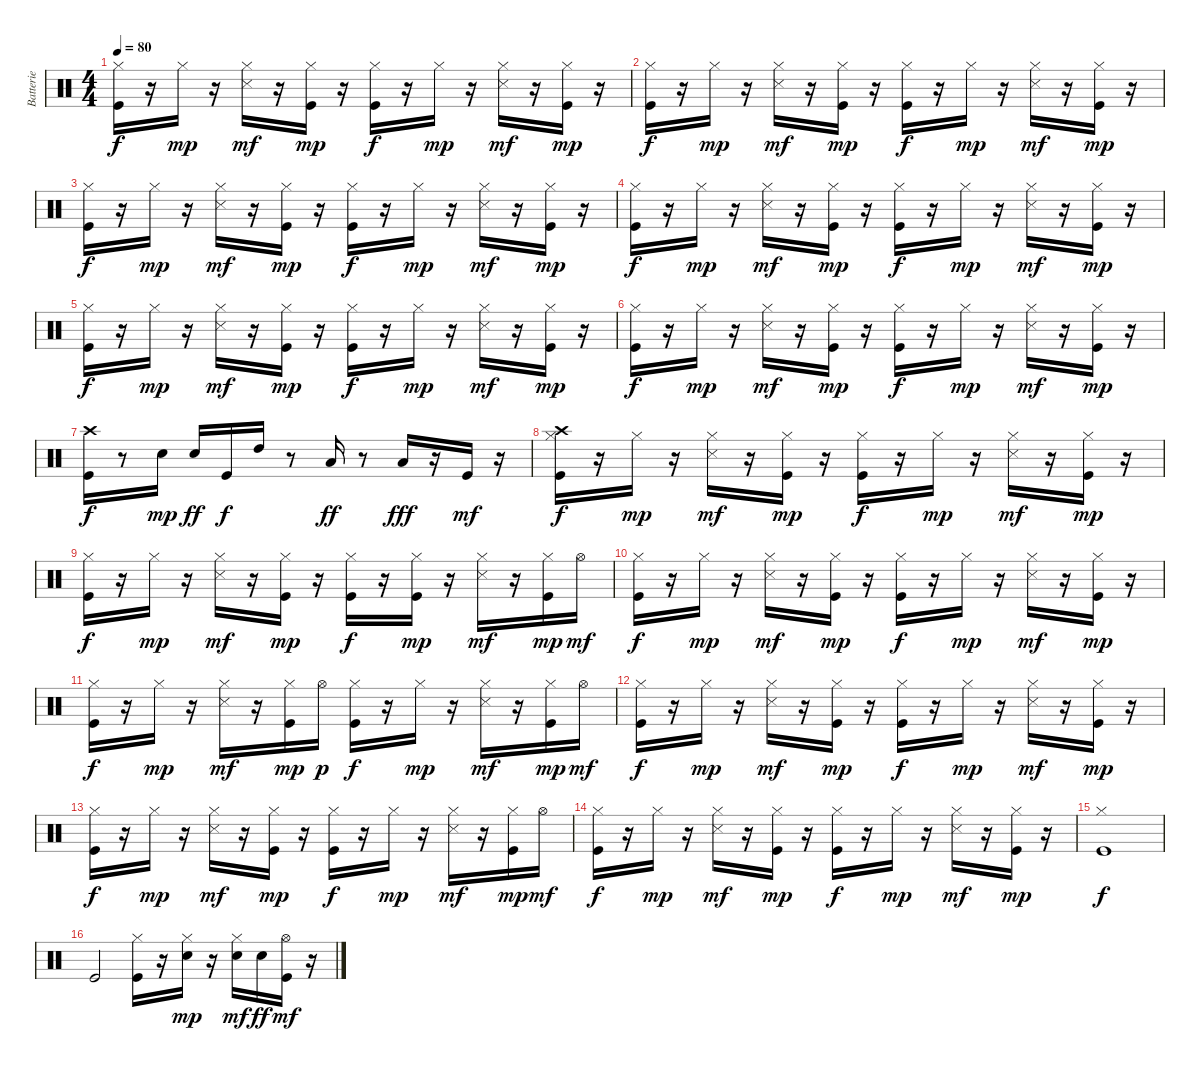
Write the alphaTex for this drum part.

\track ("Batterie" "Batterie") {instrument percussion}
\staff {score}
\articulation defaults
\ts (4 4)
\tempo 80
\clef neutral
\ks c
("Kick (hit)" "Hi-Hat (closed)").16{dy f} r.16 "Hi-Hat (closed)".16{dy mp} r.16 ("Hi-Hat (closed)" "Snare (side stick) 3").16{dy mf} r.16 ("Kick (hit)" "Hi-Hat (closed)").16{dy mp} r.16 ("Kick (hit)" "Hi-Hat (closed)").16{dy f} r.16 "Hi-Hat (closed)".16{dy mp} r.16 ("Hi-Hat (closed)" "Snare (side stick) 3").16{dy mf} r.16 ("Kick (hit)" "Hi-Hat (closed)").16{dy mp} r.16 |
("Kick (hit)" "Hi-Hat (closed)").16{dy f} r.16 "Hi-Hat (closed)".16{dy mp} r.16 ("Hi-Hat (closed)" "Snare (side stick) 3").16{dy mf} r.16 ("Kick (hit)" "Hi-Hat (closed)").16{dy mp} r.16 ("Kick (hit)" "Hi-Hat (closed)").16{dy f} r.16 "Hi-Hat (closed)".16{dy mp} r.16 ("Hi-Hat (closed)" "Snare (side stick) 3").16{dy mf} r.16 ("Kick (hit)" "Hi-Hat (closed)").16{dy mp} r.16 |
("Kick (hit)" "Hi-Hat (closed)").16{dy f} r.16 "Hi-Hat (closed)".16{dy mp} r.16 ("Hi-Hat (closed)" "Snare (side stick) 3").16{dy mf} r.16 ("Kick (hit)" "Hi-Hat (closed)").16{dy mp} r.16 ("Kick (hit)" "Hi-Hat (closed)").16{dy f} r.16 "Hi-Hat (closed)".16{dy mp} r.16 ("Hi-Hat (closed)" "Snare (side stick) 3").16{dy mf} r.16 ("Kick (hit)" "Hi-Hat (closed)").16{dy mp} r.16 |
("Kick (hit)" "Hi-Hat (closed)").16{dy f} r.16 "Hi-Hat (closed)".16{dy mp} r.16 ("Hi-Hat (closed)" "Snare (side stick) 3").16{dy mf} r.16 ("Kick (hit)" "Hi-Hat (closed)").16{dy mp} r.16 ("Kick (hit)" "Hi-Hat (closed)").16{dy f} r.16 "Hi-Hat (closed)".16{dy mp} r.16 ("Hi-Hat (closed)" "Snare (side stick) 3").16{dy mf} r.16 ("Kick (hit)" "Hi-Hat (closed)").16{dy mp} r.16 |
("Kick (hit)" "Hi-Hat (closed)").16{dy f} r.16 "Hi-Hat (closed)".16{dy mp} r.16 ("Hi-Hat (closed)" "Snare (side stick) 3").16{dy mf} r.16 ("Kick (hit)" "Hi-Hat (closed)").16{dy mp} r.16 ("Kick (hit)" "Hi-Hat (closed)").16{dy f} r.16 "Hi-Hat (closed)".16{dy mp} r.16 ("Hi-Hat (closed)" "Snare (side stick) 3").16{dy mf} r.16 ("Kick (hit)" "Hi-Hat (closed)").16{dy mp} r.16 |
("Kick (hit)" "Hi-Hat (closed)").16{dy f} r.16 "Hi-Hat (closed)".16{dy mp} r.16 ("Hi-Hat (closed)" "Snare (side stick) 3").16{dy mf} r.16 ("Kick (hit)" "Hi-Hat (closed)").16{dy mp} r.16 ("Kick (hit)" "Hi-Hat (closed)").16{dy f} r.16 "Hi-Hat (closed)".16{dy mp} r.16 ("Hi-Hat (closed)" "Snare (side stick) 3").16{dy mf} r.16 ("Kick (hit)" "Hi-Hat (closed)").16{dy mp} r.16 |
("Kick (hit)" "Crash high (hit)").16{dy f} r.8 "Snare (hit) 2".16{dy mp} "Snare (hit) 2".16{dy ff} "Kick (hit)".16{dy f} "High Tom (hit)".16 r.8 "Low Tom (hit)".16{dy ff} r.8 "Low Floor Tom (hit)".16{dy fff} r.16 "Kick (hit)".16{dy mf} r.16 |
("Kick (hit)" "Hi-Hat (closed)" "Crash high (hit)").16{dy f} r.16 "Hi-Hat (closed)".16{dy mp} r.16 ("Hi-Hat (closed)" "Snare (side stick) 3").16{dy mf} r.16 ("Kick (hit)" "Hi-Hat (closed)").16{dy mp} r.16 ("Kick (hit)" "Hi-Hat (closed)").16{dy f} r.16 "Hi-Hat (closed)".16{dy mp} r.16 ("Hi-Hat (closed)" "Snare (side stick) 3").16{dy mf} r.16 ("Kick (hit)" "Hi-Hat (closed)").16{dy mp} r.16 |
("Kick (hit)" "Hi-Hat (closed)").16{dy f} r.16 "Hi-Hat (closed)".16{dy mp} r.16 ("Hi-Hat (closed)" "Snare (side stick) 3").16{dy mf} r.16 ("Kick (hit)" "Hi-Hat (closed)").16{dy mp} r.16 ("Kick (hit)" "Hi-Hat (closed)").16{dy f} r.16 ("Kick (hit)" "Hi-Hat (closed)").16{dy mp} r.16 ("Hi-Hat (closed)" "Snare (side stick) 3").16{dy mf} r.16 ("Kick (hit)" "Hi-Hat (closed)").16{dy mp} "Hi-Hat (open)".16{dy mf} |
("Kick (hit)" "Hi-Hat (closed)").16{dy f} r.16 "Hi-Hat (closed)".16{dy mp} r.16 ("Hi-Hat (closed)" "Snare (side stick) 3").16{dy mf} r.16 ("Kick (hit)" "Hi-Hat (closed)").16{dy mp} r.16 ("Kick (hit)" "Hi-Hat (closed)").16{dy f} r.16 "Hi-Hat (closed)".16{dy mp} r.16 ("Hi-Hat (closed)" "Snare (side stick) 3").16{dy mf} r.16 ("Kick (hit)" "Hi-Hat (closed)").16{dy mp} r.16 |
("Kick (hit)" "Hi-Hat (closed)").16{dy f} r.16 "Hi-Hat (closed)".16{dy mp} r.16 ("Hi-Hat (closed)" "Snare (side stick) 3").16{dy mf} r.16 ("Kick (hit)" "Hi-Hat (closed)").16{dy mp} "Hi-Hat (open)".16{dy p} ("Kick (hit)" "Hi-Hat (closed)").16{dy f} r.16 "Hi-Hat (closed)".16{dy mp} r.16 ("Hi-Hat (closed)" "Snare (side stick) 3").16{dy mf} r.16 ("Kick (hit)" "Hi-Hat (closed)").16{dy mp} "Hi-Hat (open)".16{dy mf} |
("Kick (hit)" "Hi-Hat (closed)").16{dy f} r.16 "Hi-Hat (closed)".16{dy mp} r.16 ("Hi-Hat (closed)" "Snare (side stick) 3").16{dy mf} r.16 ("Kick (hit)" "Hi-Hat (closed)").16{dy mp} r.16 ("Kick (hit)" "Hi-Hat (closed)").16{dy f} r.16 "Hi-Hat (closed)".16{dy mp} r.16 ("Hi-Hat (closed)" "Snare (side stick) 3").16{dy mf} r.16 ("Kick (hit)" "Hi-Hat (closed)").16{dy mp} r.16 |
("Kick (hit)" "Hi-Hat (closed)").16{dy f} r.16 "Hi-Hat (closed)".16{dy mp} r.16 ("Hi-Hat (closed)" "Snare (side stick) 3").16{dy mf} r.16 ("Kick (hit)" "Hi-Hat (closed)").16{dy mp} r.16 ("Kick (hit)" "Hi-Hat (closed)").16{dy f} r.16 "Hi-Hat (closed)".16{dy mp} r.16 ("Hi-Hat (closed)" "Snare (side stick) 3").16{dy mf} r.16 ("Kick (hit)" "Hi-Hat (closed)").16{dy mp} "Hi-Hat (open)".16{dy mf} |
("Kick (hit)" "Hi-Hat (closed)").16{dy f} r.16 "Hi-Hat (closed)".16{dy mp} r.16 ("Hi-Hat (closed)" "Snare (side stick) 3").16{dy mf} r.16 ("Kick (hit)" "Hi-Hat (closed)").16{dy mp} r.16 ("Kick (hit)" "Hi-Hat (closed)").16{dy f} r.16 "Hi-Hat (closed)".16{dy mp} r.16 ("Hi-Hat (closed)" "Snare (side stick) 3").16{dy mf} r.16 ("Kick (hit)" "Hi-Hat (closed)").16{dy mp} r.16 |
("Kick (hit)" "Hi-Hat (closed)").1{dy f} |
"Kick (hit)".2 ("Kick (hit)" "Hi-Hat (closed)").16 r.16 ("Snare (hit) 2" "Hi-Hat (closed)").16{dy mp} r.16 ("Snare (hit) 2" "Hi-Hat (closed)").16{dy mf} "Snare (hit) 2".16{dy ff} ("Kick (hit)" "Hi-Hat (open)").16{dy mf} r.16
